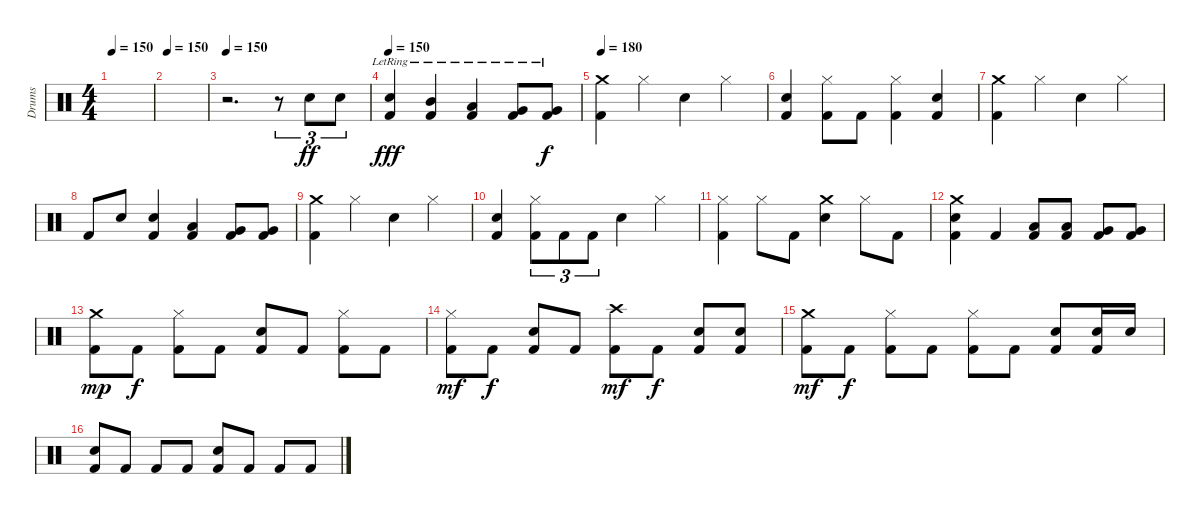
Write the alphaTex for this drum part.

\track ("Drums" "Drums") {instrument percussion}
\staff {score}
\articulation defaults
\ts (4 4)
\tempo 150
\clef neutral
\ks c
|
\tempo 150
|
\tempo 150
r.2{d} r.8{tu (3 2)} "Electric Snare (hit)".8{tu (3 2) dy ff} "Electric Snare (hit)".8{tu (3 2)} |
\tempo 150
("Electric Snare (hit)"{lr} "Kick (hit) 2").4{dy fff volume 15 balance 16} ("Mid Tom (hit)"{lr} "Kick (hit) 2").4 ("Low Tom (hit)"{lr} "Kick (hit) 2").4 ("Very Low Tom (hit)"{lr} "Kick (hit) 2").8 ("Very Low Tom (hit)"{lr} "Kick (hit) 2").8{dy f} |
\tempo 180
("Crash medium (hit)" "Kick (hit) 2").4{volume 13 balance 8} "Hi-Hat (closed)".4 "Electric Snare (hit)".4 "Hi-Hat (closed)".4 |
("Electric Snare (hit)" "Kick (hit) 2").4 ("Hi-Hat (closed)" "Kick (hit) 2").8 "Kick (hit) 2".8 ("Hi-Hat (closed)" "Kick (hit) 2").4 ("Electric Snare (hit)" "Kick (hit) 2").4 |
("Crash medium (hit)" "Kick (hit) 2").4 "Hi-Hat (closed)".4 "Electric Snare (hit)".4 "Hi-Hat (closed)".4 |
"Kick (hit) 2".8 "Electric Snare (hit)".8 ("Electric Snare (hit)" "Kick (hit) 2").4 ("Low Tom (hit)" "Kick (hit) 2").4 ("Very Low Tom (hit)" "Kick (hit) 2").8 ("Very Low Tom (hit)" "Kick (hit) 2").8 |
("Crash medium (hit)" "Kick (hit) 2").4 "Hi-Hat (closed)".4 "Electric Snare (hit)".4 "Hi-Hat (closed)".4 |
("Electric Snare (hit)" "Kick (hit) 2").4 ("Hi-Hat (closed)" "Kick (hit) 2").8{tu (3 2)} "Kick (hit) 2".8{tu (3 2)} "Kick (hit) 2".8{tu (3 2)} "Electric Snare (hit)".4 "Hi-Hat (closed)".4 |
("Hi-Hat (closed)" "Kick (hit) 2").4 "Hi-Hat (closed)".8 "Kick (hit) 2".8 ("Crash medium (hit)" "Electric Snare (hit)").4 "Hi-Hat (closed)".8 "Kick (hit) 2".8 |
("Crash medium (hit)" "Electric Snare (hit)" "Kick (hit) 2").4 "Kick (hit) 2".4 ("Low Tom (hit)" "Kick (hit) 2").8 ("Low Tom (hit)" "Kick (hit) 2").8 ("Very Low Tom (hit)" "Kick (hit) 2").8 ("Very Low Tom (hit)" "Kick (hit) 2").8 |
("Crash medium (hit)" "Kick (hit) 2").8{dy mp} "Kick (hit) 2".8{dy f} ("Hi-Hat (closed)" "Kick (hit) 2").8 "Kick (hit) 2".8 ("Electric Snare (hit)" "Kick (hit) 2").8 "Kick (hit) 2".8 ("Hi-Hat (closed)" "Kick (hit) 2").8 "Kick (hit) 2".8 |
("Hi-Hat (closed)" "Kick (hit) 2").8{dy mf} "Kick (hit) 2".8{dy f} ("Electric Snare (hit)" "Kick (hit) 2").8 "Kick (hit) 2".8 ("Crash high (hit)" "Kick (hit) 2").8{dy mf} "Kick (hit) 2".8{dy f} ("Electric Snare (hit)" "Kick (hit) 2").8 ("Electric Snare (hit)" "Kick (hit) 2").8 |
("Crash medium (hit)" "Kick (hit) 2").8{dy mf} "Kick (hit) 2".8{dy f} ("Hi-Hat (closed)" "Kick (hit) 2").8 "Kick (hit) 2".8 ("Hi-Hat (closed)" "Kick (hit) 2").8 "Kick (hit) 2".8 ("Electric Snare (hit)" "Kick (hit) 2").8 ("Electric Snare (hit)" "Kick (hit) 2").16 "Electric Snare (hit)".16 |
("Electric Snare (hit)" "Kick (hit) 2").8 "Kick (hit) 2".8 "Kick (hit) 2".8 "Kick (hit) 2".8 ("Electric Snare (hit)" "Kick (hit) 2").8 "Kick (hit) 2".8 "Kick (hit) 2".8 "Kick (hit) 2".8
